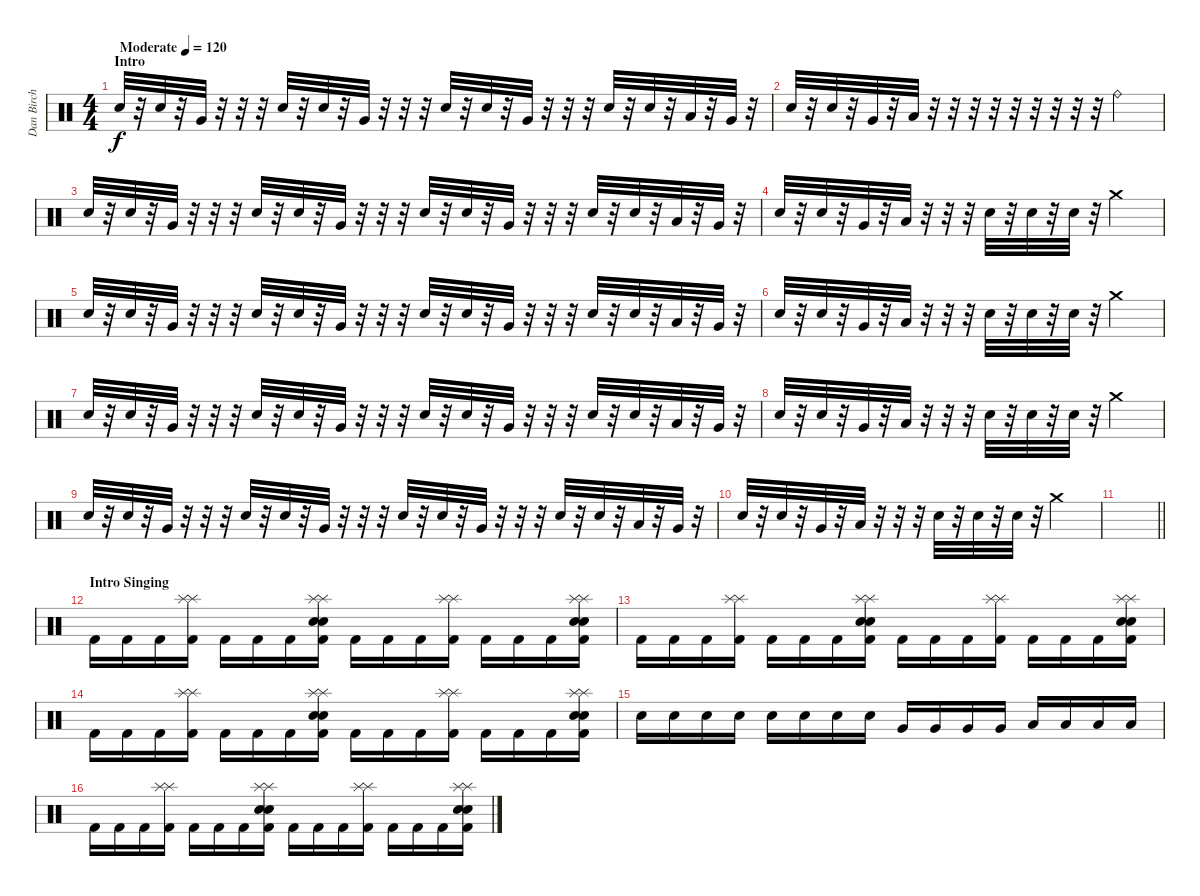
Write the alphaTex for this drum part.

\track ("Dan Birch" "Dan Birch") {instrument percussion}
\staff {score}
\articulation defaults
\ts (4 4)
\section ("" "Intro")
\tempo (120 "Moderate")
\clef neutral
\ks c "Snare (hit) 2".32{dy f}
r.32 "Snare (hit) 2".32 r.32 "Very Low Tom (hit)".32 r.32 r.32 r.32 "Snare (hit) 2".32 r.32 "Snare (hit) 2".32 r.32 "Very Low Tom (hit)".32 r.32 r.32 r.32 "Snare (hit) 2".32 r.32 "Snare (hit) 2".32 r.32 "Very Low Tom (hit)".32 r.32 r.32 r.32 "Snare (hit) 2".32 r.32 "Snare (hit) 2".32 r.32 "Low Tom (hit)".32 r.32 "Very Low Tom (hit)".32 r.32 |
"Snare (hit) 2".32 r.32 "Snare (hit) 2".32 r.32 "Very Low Tom (hit)".32 r.32 "Low Tom (hit)".32 r.32 r.32 r.32 r.32 r.32 r.32 r.32 r.32 r.32 "Ride (bell)".2 |
"Snare (hit) 2".32 r.32 "Snare (hit) 2".32 r.32 "Very Low Tom (hit)".32 r.32 r.32 r.32 "Snare (hit) 2".32 r.32 "Snare (hit) 2".32 r.32 "Very Low Tom (hit)".32 r.32 r.32 r.32 "Snare (hit) 2".32 r.32 "Snare (hit) 2".32 r.32 "Very Low Tom (hit)".32 r.32 r.32 r.32 "Snare (hit) 2".32 r.32 "Snare (hit) 2".32 r.32 "Low Tom (hit)".32 r.32 "Very Low Tom (hit)".32 r.32 |
"Snare (hit) 2".32 r.32 "Snare (hit) 2".32 r.32 "Very Low Tom (hit)".32 r.32 "Low Tom (hit)".32 r.32 r.32 r.32 "Snare (hit) 2".32 r.32 "Snare (hit) 2".32 r.32 "Snare (hit) 2".32 r.32 "Crash medium (hit)".2 |
"Snare (hit) 2".32 r.32 "Snare (hit) 2".32 r.32 "Very Low Tom (hit)".32 r.32 r.32 r.32 "Snare (hit) 2".32 r.32 "Snare (hit) 2".32 r.32 "Very Low Tom (hit)".32 r.32 r.32 r.32 "Snare (hit) 2".32 r.32 "Snare (hit) 2".32 r.32 "Very Low Tom (hit)".32 r.32 r.32 r.32 "Snare (hit) 2".32 r.32 "Snare (hit) 2".32 r.32 "Low Tom (hit)".32 r.32 "Very Low Tom (hit)".32 r.32 |
"Snare (hit) 2".32 r.32 "Snare (hit) 2".32 r.32 "Very Low Tom (hit)".32 r.32 "Low Tom (hit)".32 r.32 r.32 r.32 "Snare (hit) 2".32 r.32 "Snare (hit) 2".32 r.32 "Snare (hit) 2".32 r.32 "Crash medium (hit)".2 |
"Snare (hit) 2".32 r.32 "Snare (hit) 2".32 r.32 "Very Low Tom (hit)".32 r.32 r.32 r.32 "Snare (hit) 2".32 r.32 "Snare (hit) 2".32 r.32 "Very Low Tom (hit)".32 r.32 r.32 r.32 "Snare (hit) 2".32 r.32 "Snare (hit) 2".32 r.32 "Very Low Tom (hit)".32 r.32 r.32 r.32 "Snare (hit) 2".32 r.32 "Snare (hit) 2".32 r.32 "Low Tom (hit)".32 r.32 "Very Low Tom (hit)".32 r.32 |
"Snare (hit) 2".32 r.32 "Snare (hit) 2".32 r.32 "Very Low Tom (hit)".32 r.32 "Low Tom (hit)".32 r.32 r.32 r.32 "Snare (hit) 2".32 r.32 "Snare (hit) 2".32 r.32 "Snare (hit) 2".32 r.32 "Crash medium (hit)".2 |
"Snare (hit) 2".32 r.32 "Snare (hit) 2".32 r.32 "Very Low Tom (hit)".32 r.32 r.32 r.32 "Snare (hit) 2".32 r.32 "Snare (hit) 2".32 r.32 "Very Low Tom (hit)".32 r.32 r.32 r.32 "Snare (hit) 2".32 r.32 "Snare (hit) 2".32 r.32 "Very Low Tom (hit)".32 r.32 r.32 r.32 "Snare (hit) 2".32 r.32 "Snare (hit) 2".32 r.32 "Low Tom (hit)".32 r.32 "Very Low Tom (hit)".32 r.32 |
"Snare (hit) 2".32 r.32 "Snare (hit) 2".32 r.32 "Very Low Tom (hit)".32 r.32 "Low Tom (hit)".32 r.32 r.32 r.32 "Snare (hit) 2".32 r.32 "Snare (hit) 2".32 r.32 "Snare (hit) 2".32 r.32 "Crash medium (hit)".2 |
\barLineRight lightlight
|
\section ("" "Intro Singing")
"Kick (hit) 2".16 "Kick (hit) 2".16 "Kick (hit) 2".16 ("Splash (hit)" "Splash (hit)" "Kick (hit) 2").16 "Kick (hit) 2".16 "Kick (hit) 2".16 "Kick (hit) 2".16 ("Splash (hit)" "Splash (hit)" "Kick (hit) 2" "Snare (hit) 2" "Snare (hit) 2").16 "Kick (hit) 2".16 "Kick (hit) 2".16 "Kick (hit) 2".16 ("Splash (hit)" "Splash (hit)" "Kick (hit) 2").16 "Kick (hit) 2".16 "Kick (hit) 2".16 "Kick (hit) 2".16 ("Splash (hit)" "Splash (hit)" "Kick (hit) 2" "Snare (hit) 2" "Snare (hit) 2").16 |
"Kick (hit) 2".16 "Kick (hit) 2".16 "Kick (hit) 2".16 ("Splash (hit)" "Splash (hit)" "Kick (hit) 2").16 "Kick (hit) 2".16 "Kick (hit) 2".16 "Kick (hit) 2".16 ("Splash (hit)" "Splash (hit)" "Kick (hit) 2" "Snare (hit) 2" "Snare (hit) 2").16 "Kick (hit) 2".16 "Kick (hit) 2".16 "Kick (hit) 2".16 ("Splash (hit)" "Splash (hit)" "Kick (hit) 2").16 "Kick (hit) 2".16 "Kick (hit) 2".16 "Kick (hit) 2".16 ("Splash (hit)" "Splash (hit)" "Kick (hit) 2" "Snare (hit) 2" "Snare (hit) 2").16 |
"Kick (hit) 2".16 "Kick (hit) 2".16 "Kick (hit) 2".16 ("Splash (hit)" "Splash (hit)" "Kick (hit) 2").16 "Kick (hit) 2".16 "Kick (hit) 2".16 "Kick (hit) 2".16 ("Splash (hit)" "Splash (hit)" "Kick (hit) 2" "Snare (hit) 2" "Snare (hit) 2").16 "Kick (hit) 2".16 "Kick (hit) 2".16 "Kick (hit) 2".16 ("Splash (hit)" "Splash (hit)" "Kick (hit) 2").16 "Kick (hit) 2".16 "Kick (hit) 2".16 "Kick (hit) 2".16 ("Splash (hit)" "Splash (hit)" "Kick (hit) 2" "Snare (hit) 2" "Snare (hit) 2").16 |
"Snare (hit) 2".16 "Snare (hit) 2".16 "Snare (hit) 2".16 "Snare (hit) 2".16 "Snare (hit) 2".16 "Snare (hit) 2".16 "Snare (hit) 2".16 "Snare (hit) 2".16 "Very Low Tom (hit)".16 "Very Low Tom (hit)".16 "Very Low Tom (hit)".16 "Very Low Tom (hit)".16 "Low Tom (hit)".16 "Low Tom (hit)".16 "Low Tom (hit)".16 "Low Tom (hit)".16 |
"Kick (hit) 2".16 "Kick (hit) 2".16 "Kick (hit) 2".16 ("Splash (hit)" "Splash (hit)" "Kick (hit) 2").16 "Kick (hit) 2".16 "Kick (hit) 2".16 "Kick (hit) 2".16 ("Splash (hit)" "Splash (hit)" "Kick (hit) 2" "Snare (hit) 2" "Snare (hit) 2").16 "Kick (hit) 2".16 "Kick (hit) 2".16 "Kick (hit) 2".16 ("Splash (hit)" "Splash (hit)" "Kick (hit) 2").16 "Kick (hit) 2".16 "Kick (hit) 2".16 "Kick (hit) 2".16 ("Splash (hit)" "Splash (hit)" "Kick (hit) 2" "Snare (hit) 2" "Snare (hit) 2").16
